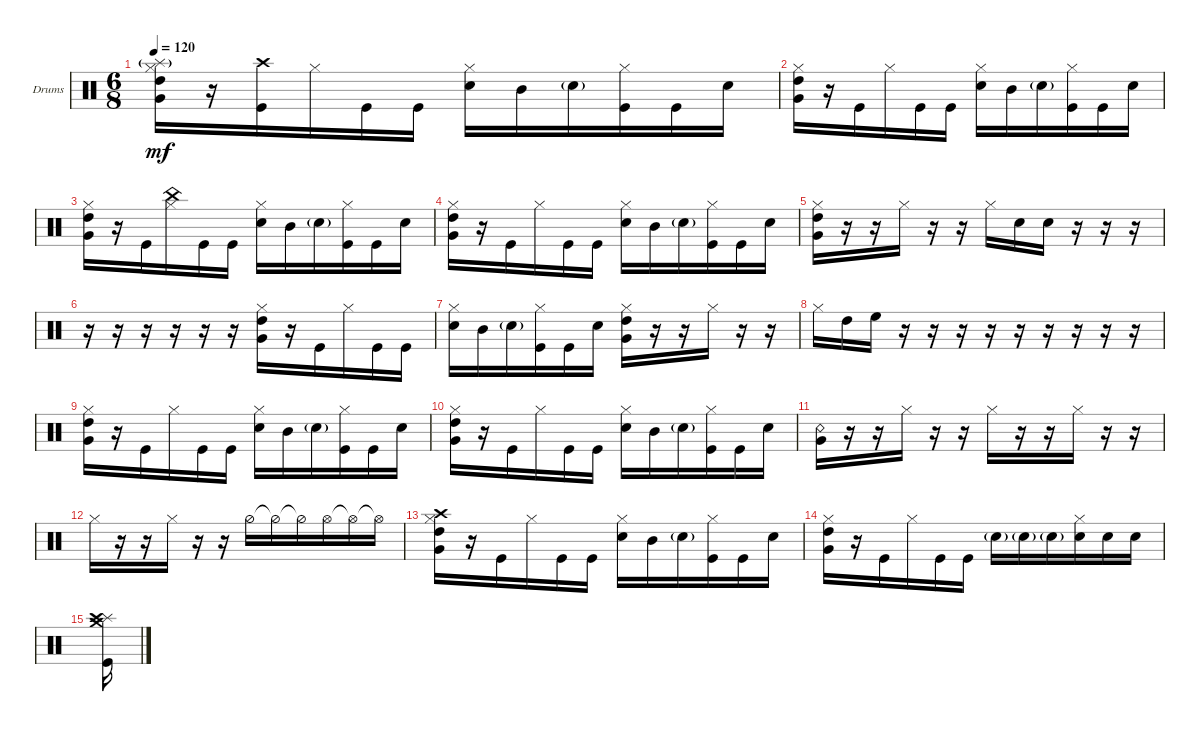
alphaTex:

\defaultSystemsLayout 4
\bracketExtendMode groupsimilarinstruments
\firstSystemTrackNameOrientation horizontal
\otherSystemsTrackNameOrientation horizontal
\track ("Drumkit" "Drums") {instrument percussion}
\staff {score}
\articulation defaults
\ts (6 8)
\tempo 120
\clef neutral
\ks c
("Very Low Tom (hit)" "Hi-Hat (closed)" "High Tom (hit)" "Splash (hit)"{g}).16{dy mf} r.16 ("Kick (hit)" "Crash high (hit)").16 "Hi-Hat (closed)".16 "Kick (hit)".16 "Kick (hit)".16 ("Snare (hit) 2" "Hi-Hat (closed)").16 "Mid Tom (hit)".16 "Snare (hit) 2"{g}.16 ("Kick (hit)" "Hi-Hat (closed)").16 "Kick (hit)".16 "Snare (hit) 2".16 |
("Very Low Tom (hit)" "Hi-Hat (closed)" "High Tom (hit)").16 r.16 "Kick (hit)".16 "Hi-Hat (closed)".16 "Kick (hit)".16 "Kick (hit)".16 ("Snare (hit) 2" "Hi-Hat (closed)").16 "Mid Tom (hit)".16 "Snare (hit) 2"{g}.16 ("Kick (hit)" "Hi-Hat (closed)").16 "Kick (hit)".16 "Snare (hit) 2".16 |
("Very Low Tom (hit)" "Hi-Hat (closed)" "High Tom (hit)").16 r.16 "Kick (hit)".16 ("Hi-Hat (closed)" "China (hit)").16 "Kick (hit)".16 "Kick (hit)".16 ("Snare (hit) 2" "Hi-Hat (closed)").16 "Mid Tom (hit)".16 "Snare (hit) 2"{g}.16 ("Kick (hit)" "Hi-Hat (closed)").16 "Kick (hit)".16 "Snare (hit) 2".16 |
("Very Low Tom (hit)" "Hi-Hat (closed)" "High Tom (hit)").16 r.16 "Kick (hit)".16 "Hi-Hat (closed)".16 "Kick (hit)".16 "Kick (hit)".16 ("Snare (hit) 2" "Hi-Hat (closed)").16 "Mid Tom (hit)".16 "Snare (hit) 2"{g}.16 ("Kick (hit)" "Hi-Hat (closed)").16 "Kick (hit)".16 "Snare (hit) 2".16 |
("Very Low Tom (hit)" "Hi-Hat (closed)" "High Tom (hit)").16 r.16 r.16 "Hi-Hat (closed)".16 r.16 r.16 "Hi-Hat (closed)".16 "Snare (hit) 2".16 "Snare (hit) 2".16 r.16 r.16 r.16 |
r.16 r.16 r.16 r.16 r.16 r.16 ("Very Low Tom (hit)" "Hi-Hat (closed)" "High Tom (hit)").16 r.16 "Kick (hit)".16 "Hi-Hat (closed)".16 "Kick (hit)".16 "Kick (hit)".16 |
("Snare (hit) 2" "Hi-Hat (closed)").16 "Mid Tom (hit)".16 "Snare (hit) 2"{g}.16 ("Kick (hit)" "Hi-Hat (closed)").16 "Kick (hit)".16 "Snare (hit) 2".16 ("Very Low Tom (hit)" "Hi-Hat (closed)" "High Tom (hit)").16 r.16 r.16 "Hi-Hat (closed)".16 r.16 r.16 |
"Hi-Hat (closed)".16 "High Tom (hit)".16 "High Floor Tom (hit)".16 r.16 r.16 r.16 r.16 r.16 r.16 r.16 r.16 r.16 |
("Very Low Tom (hit)" "Hi-Hat (closed)" "High Tom (hit)").16 r.16 "Kick (hit)".16 "Hi-Hat (closed)".16 "Kick (hit)".16 "Kick (hit)".16 ("Snare (hit) 2" "Hi-Hat (closed)").16 "Mid Tom (hit)".16 "Snare (hit) 2"{g}.16 ("Kick (hit)" "Hi-Hat (closed)").16 "Kick (hit)".16 "Snare (hit) 2".16 |
("Very Low Tom (hit)" "Hi-Hat (closed)" "High Tom (hit)").16 r.16 "Kick (hit)".16 "Hi-Hat (closed)".16 "Kick (hit)".16 "Kick (hit)".16 ("Snare (hit) 2" "Hi-Hat (closed)").16 "Mid Tom (hit)".16 "Snare (hit) 2"{g}.16 ("Kick (hit)" "Hi-Hat (closed)").16 "Kick (hit)".16 "Snare (hit) 2".16 |
("Very Low Tom (hit)" "Snare (rim shot)").16 r.16 r.16 "Hi-Hat (closed)".16 r.16 r.16 "Hi-Hat (closed)".16 r.16 r.16 "Hi-Hat (closed)".16 r.16 r.16 |
"Hi-Hat (closed)".16 r.16 r.16 "Hi-Hat (closed)".16 r.16 r.16 "Hi-Hat (half)".16 "Hi-Hat (half)"{t}.16 "Hi-Hat (half)"{t}.16 "Hi-Hat (open)".16 "Hi-Hat (open)"{t}.16 "Hi-Hat (open)"{t}.16 |
("Very Low Tom (hit)" "Hi-Hat (closed)" "High Tom (hit)" "Crash high (hit)").16 r.16 "Kick (hit)".16 "Hi-Hat (closed)".16 "Kick (hit)".16 "Kick (hit)".16 ("Snare (hit) 2" "Hi-Hat (closed)").16 "Mid Tom (hit)".16 "Snare (hit) 2"{g}.16 ("Kick (hit)" "Hi-Hat (closed)").16 "Kick (hit)".16 "Snare (hit) 2".16 |
("Very Low Tom (hit)" "Hi-Hat (closed)" "High Tom (hit)").16 r.16 "Kick (hit)".16 "Hi-Hat (closed)".16 "Kick (hit)".16 "Kick (hit)".16 "Snare (hit) 2"{g}.16 "Snare (hit) 2"{g}.16 "Snare (hit) 2"{g}.16 ("Hi-Hat (closed)" "Snare (hit) 2").16 "Snare (hit) 2".16 "Snare (hit) 2".16 |
("Kick (hit)" "Crash medium (hit)" "Splash (hit)" "Crash high (hit)").16
